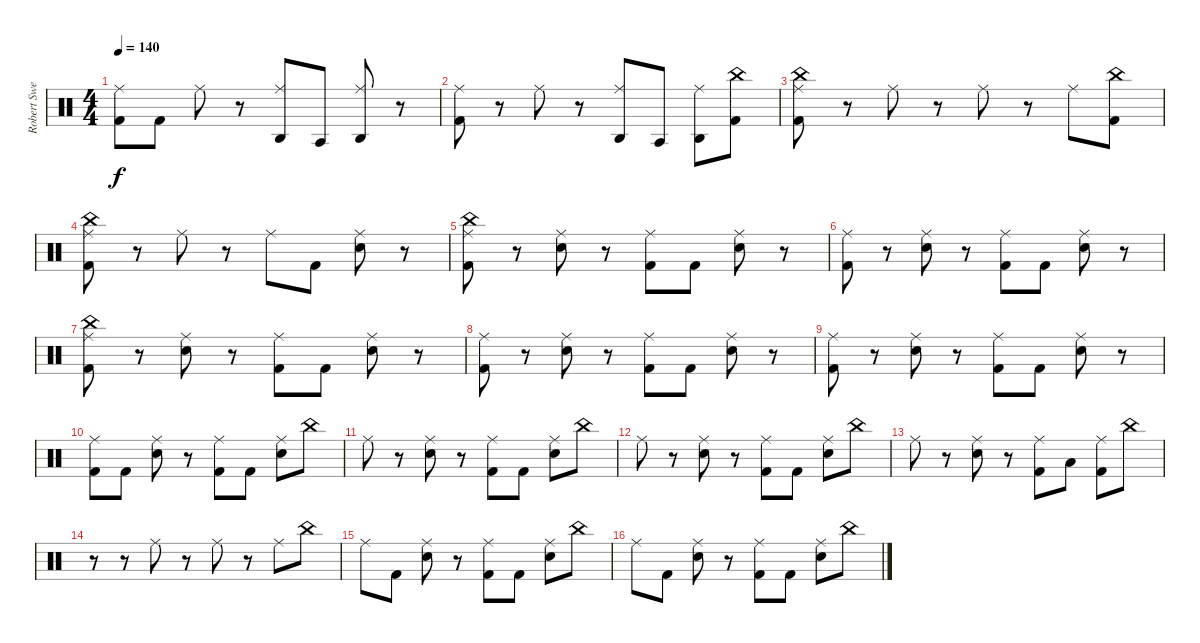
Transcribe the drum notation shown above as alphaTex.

\track ("Robert Sweet" "Robert Swe") {instrument percussion}
\staff {score}
\articulation defaults
\ts (4 4)
\tempo 140
\clef neutral
\ks c
("Ride (middle)" "Kick (hit) 2").8{dy f} "Kick (hit) 2".8 "Ride (middle)".8 r.8 ("Ride (middle)" "Agogo high (hit)").8 "Agogo tow (hit)".8 ("Ride (middle)" "Agogo high (hit)").8 r.8 |
("Ride (middle)" "Kick (hit) 2").8 r.8 "Ride (middle)".8 r.8 ("Ride (middle)" "Agogo high (hit)").8 "Agogo tow (hit)".8 ("Ride (middle)" "Agogo high (hit)").8 ("Kick (hit) 2" "China (hit)").8 |
("Ride (middle)" "Kick (hit) 2" "China (hit)").8 r.8 "Ride (middle)".8 r.8 "Ride (middle)".8 r.8 "Ride (middle)".8 ("Kick (hit) 2" "China (hit)").8 |
("Ride (middle)" "Kick (hit) 2" "China (hit)").8 r.8 "Ride (middle)".8 r.8 "Ride (middle)".8 "Kick (hit) 2".8 ("Ride (middle)" "Electric Snare (hit)").8 r.8 |
("Ride (middle)" "Kick (hit) 2" "China (hit)").8 r.8 ("Ride (middle)" "Electric Snare (hit)").8 r.8 ("Ride (middle)" "Kick (hit) 2").8 "Kick (hit) 2".8 ("Ride (middle)" "Electric Snare (hit)").8 r.8 |
("Ride (middle)" "Kick (hit) 2").8 r.8 ("Ride (middle)" "Electric Snare (hit)").8 r.8 ("Ride (middle)" "Kick (hit) 2").8 "Kick (hit) 2".8 ("Ride (middle)" "Electric Snare (hit)").8 r.8 |
("Ride (middle)" "Kick (hit) 2" "China (hit)").8 r.8 ("Ride (middle)" "Electric Snare (hit)").8 r.8 ("Ride (middle)" "Kick (hit) 2").8 "Kick (hit) 2".8 ("Ride (middle)" "Electric Snare (hit)").8 r.8 |
("Ride (middle)" "Kick (hit) 2").8 r.8 ("Ride (middle)" "Electric Snare (hit)").8 r.8 ("Ride (middle)" "Kick (hit) 2").8 "Kick (hit) 2".8 ("Ride (middle)" "Electric Snare (hit)").8 r.8 |
("Ride (middle)" "Kick (hit) 2").8 r.8 ("Ride (middle)" "Electric Snare (hit)").8 r.8 ("Ride (middle)" "Kick (hit) 2").8 "Kick (hit) 2".8 ("Ride (middle)" "Electric Snare (hit)").8 r.8 |
("Ride (middle)" "Kick (hit) 2").8 "Kick (hit) 2".8 ("Ride (middle)" "Electric Snare (hit)").8 r.8 ("Ride (middle)" "Kick (hit) 2").8 "Kick (hit) 2".8 ("Ride (middle)" "Electric Snare (hit)").8 "China (hit)".8 |
"Ride (middle)".8 r.8 ("Ride (middle)" "Electric Snare (hit)").8 r.8 ("Ride (middle)" "Kick (hit) 2").8 "Kick (hit) 2".8 ("Ride (middle)" "Electric Snare (hit)").8 "China (hit)".8 |
"Ride (middle)".8 r.8 ("Ride (middle)" "Electric Snare (hit)").8 r.8 ("Ride (middle)" "Kick (hit) 2").8 "Kick (hit) 2".8 ("Ride (middle)" "Electric Snare (hit)").8 "China (hit)".8 |
"Ride (middle)".8 r.8 ("Ride (middle)" "Electric Snare (hit)").8 r.8 ("Ride (middle)" "Kick (hit) 2").8 "Low Floor Tom (hit)".8 ("Ride (middle)" "Kick (hit) 2").8 "China (hit)".8 |
r.8 r.8 "Ride (middle)".8 r.8 "Ride (middle)".8 r.8 "Ride (middle)".8 "China (hit)".8 |
"Ride (middle)".8 "Kick (hit) 2".8 ("Ride (middle)" "Electric Snare (hit)").8 r.8 ("Ride (middle)" "Kick (hit) 2").8 "Kick (hit) 2".8 ("Ride (middle)" "Electric Snare (hit)").8 "China (hit)".8 |
"Ride (middle)".8 "Kick (hit) 2".8 ("Ride (middle)" "Electric Snare (hit)").8 r.8 ("Ride (middle)" "Kick (hit) 2").8 "Kick (hit) 2".8 ("Ride (middle)" "Electric Snare (hit)").8 "China (hit)".8
